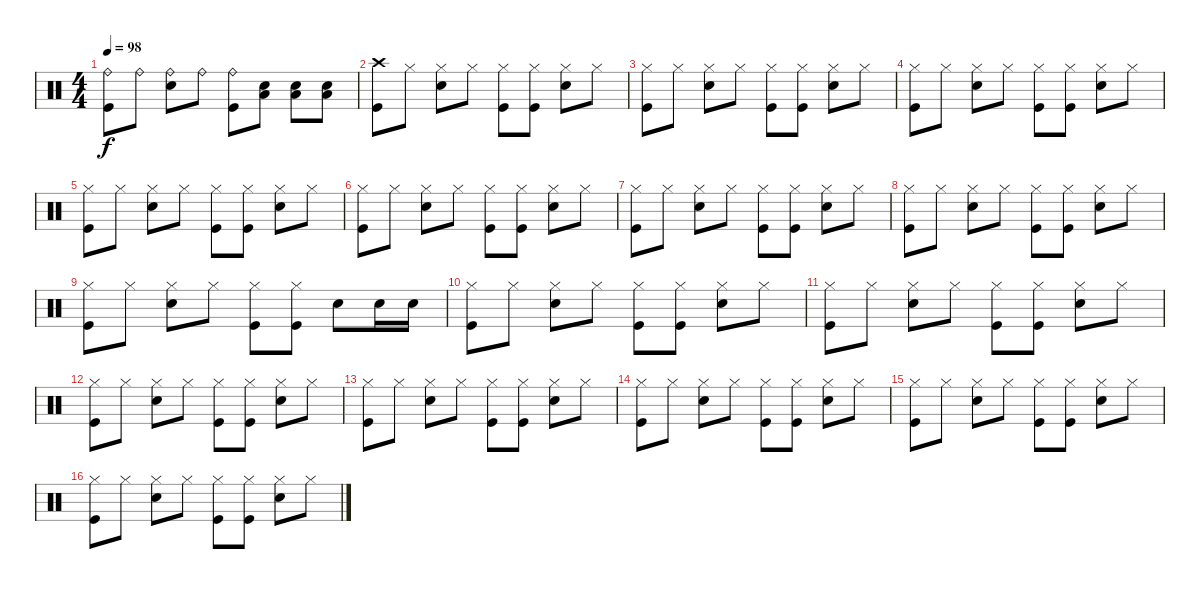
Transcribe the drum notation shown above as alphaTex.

\track "" {instrument percussion}
\staff {score}
\articulation defaults
\ts (4 4)
\tempo 98
\clef neutral
\ks c
("Ride (bell)" "Kick (hit)").8{dy f} "Ride (bell)".8 ("Ride (bell)" "Snare (hit) 2").8 "Ride (bell)".8 ("Ride (bell)" "Kick (hit)").8 ("Low Tom (hit)" "Snare (hit) 2").8 ("Low Tom (hit)" "Snare (hit) 2").8 ("Low Tom (hit)" "Snare (hit) 2").8 |
("Crash high (hit)" "Kick (hit)").8 "Hi-Hat (closed)".8 ("Hi-Hat (closed)" "Snare (hit) 2").8 "Hi-Hat (closed)".8 ("Hi-Hat (closed)" "Kick (hit)").8 ("Hi-Hat (closed)" "Kick (hit)").8 ("Hi-Hat (closed)" "Snare (hit) 2").8 "Hi-Hat (closed)".8 |
("Hi-Hat (closed)" "Kick (hit)").8 "Hi-Hat (closed)".8 ("Hi-Hat (closed)" "Snare (hit) 2").8 "Hi-Hat (closed)".8 ("Hi-Hat (closed)" "Kick (hit)").8 ("Hi-Hat (closed)" "Kick (hit)").8 ("Hi-Hat (closed)" "Snare (hit) 2").8 "Hi-Hat (closed)".8 |
("Hi-Hat (closed)" "Kick (hit)").8 "Hi-Hat (closed)".8 ("Hi-Hat (closed)" "Snare (hit) 2").8 "Hi-Hat (closed)".8 ("Hi-Hat (closed)" "Kick (hit)").8 ("Hi-Hat (closed)" "Kick (hit)").8 ("Hi-Hat (closed)" "Snare (hit) 2").8 "Hi-Hat (closed)".8 |
("Hi-Hat (closed)" "Kick (hit)").8 "Hi-Hat (closed)".8 ("Hi-Hat (closed)" "Snare (hit) 2").8 "Hi-Hat (closed)".8 ("Hi-Hat (closed)" "Kick (hit)").8 ("Hi-Hat (closed)" "Kick (hit)").8 ("Hi-Hat (closed)" "Snare (hit) 2").8 "Hi-Hat (closed)".8 |
("Hi-Hat (closed)" "Kick (hit)").8 "Hi-Hat (closed)".8 ("Hi-Hat (closed)" "Snare (hit) 2").8 "Hi-Hat (closed)".8 ("Hi-Hat (closed)" "Kick (hit)").8 ("Hi-Hat (closed)" "Kick (hit)").8 ("Hi-Hat (closed)" "Snare (hit) 2").8 "Hi-Hat (closed)".8 |
("Hi-Hat (closed)" "Kick (hit)").8 "Hi-Hat (closed)".8 ("Hi-Hat (closed)" "Snare (hit) 2").8 "Hi-Hat (closed)".8 ("Hi-Hat (closed)" "Kick (hit)").8 ("Hi-Hat (closed)" "Kick (hit)").8 ("Hi-Hat (closed)" "Snare (hit) 2").8 "Hi-Hat (closed)".8 |
("Hi-Hat (closed)" "Kick (hit)").8 "Hi-Hat (closed)".8 ("Hi-Hat (closed)" "Snare (hit) 2").8 "Hi-Hat (closed)".8 ("Hi-Hat (closed)" "Kick (hit)").8 ("Hi-Hat (closed)" "Kick (hit)").8 ("Hi-Hat (closed)" "Snare (hit) 2").8 "Hi-Hat (closed)".8 |
("Hi-Hat (closed)" "Kick (hit)").8 "Hi-Hat (closed)".8 ("Hi-Hat (closed)" "Snare (hit) 2").8 "Hi-Hat (closed)".8 ("Hi-Hat (closed)" "Kick (hit)").8 ("Hi-Hat (closed)" "Kick (hit)").8 "Snare (hit) 2".8 "Snare (hit) 2".16 "Snare (hit) 2".16 |
("Hi-Hat (closed)" "Kick (hit)").8 "Hi-Hat (closed)".8 ("Hi-Hat (closed)" "Snare (hit) 2").8 "Hi-Hat (closed)".8 ("Hi-Hat (closed)" "Kick (hit)").8 ("Hi-Hat (closed)" "Kick (hit)").8 ("Hi-Hat (closed)" "Snare (hit) 2").8 "Hi-Hat (closed)".8 |
("Hi-Hat (closed)" "Kick (hit)").8 "Hi-Hat (closed)".8 ("Hi-Hat (closed)" "Snare (hit) 2").8 "Hi-Hat (closed)".8 ("Hi-Hat (closed)" "Kick (hit)").8 ("Hi-Hat (closed)" "Kick (hit)").8 ("Hi-Hat (closed)" "Snare (hit) 2").8 "Hi-Hat (closed)".8 |
("Hi-Hat (closed)" "Kick (hit)").8 "Hi-Hat (closed)".8 ("Hi-Hat (closed)" "Snare (hit) 2").8 "Hi-Hat (closed)".8 ("Hi-Hat (closed)" "Kick (hit)").8 ("Hi-Hat (closed)" "Kick (hit)").8 ("Hi-Hat (closed)" "Snare (hit) 2").8 "Hi-Hat (closed)".8 |
("Hi-Hat (closed)" "Kick (hit)").8 "Hi-Hat (closed)".8 ("Hi-Hat (closed)" "Snare (hit) 2").8 "Hi-Hat (closed)".8 ("Hi-Hat (closed)" "Kick (hit)").8 ("Hi-Hat (closed)" "Kick (hit)").8 ("Hi-Hat (closed)" "Snare (hit) 2").8 "Hi-Hat (closed)".8 |
("Hi-Hat (closed)" "Kick (hit)").8 "Hi-Hat (closed)".8 ("Hi-Hat (closed)" "Snare (hit) 2").8 "Hi-Hat (closed)".8 ("Hi-Hat (closed)" "Kick (hit)").8 ("Hi-Hat (closed)" "Kick (hit)").8 ("Hi-Hat (closed)" "Snare (hit) 2").8 "Hi-Hat (closed)".8 |
("Hi-Hat (closed)" "Kick (hit)").8 "Hi-Hat (closed)".8 ("Hi-Hat (closed)" "Snare (hit) 2").8 "Hi-Hat (closed)".8 ("Hi-Hat (closed)" "Kick (hit)").8 ("Hi-Hat (closed)" "Kick (hit)").8 ("Hi-Hat (closed)" "Snare (hit) 2").8 "Hi-Hat (closed)".8 |
("Hi-Hat (closed)" "Kick (hit)").8 "Hi-Hat (closed)".8 ("Hi-Hat (closed)" "Snare (hit) 2").8 "Hi-Hat (closed)".8 ("Hi-Hat (closed)" "Kick (hit)").8 ("Hi-Hat (closed)" "Kick (hit)").8 ("Hi-Hat (closed)" "Snare (hit) 2").8 "Hi-Hat (closed)".8
